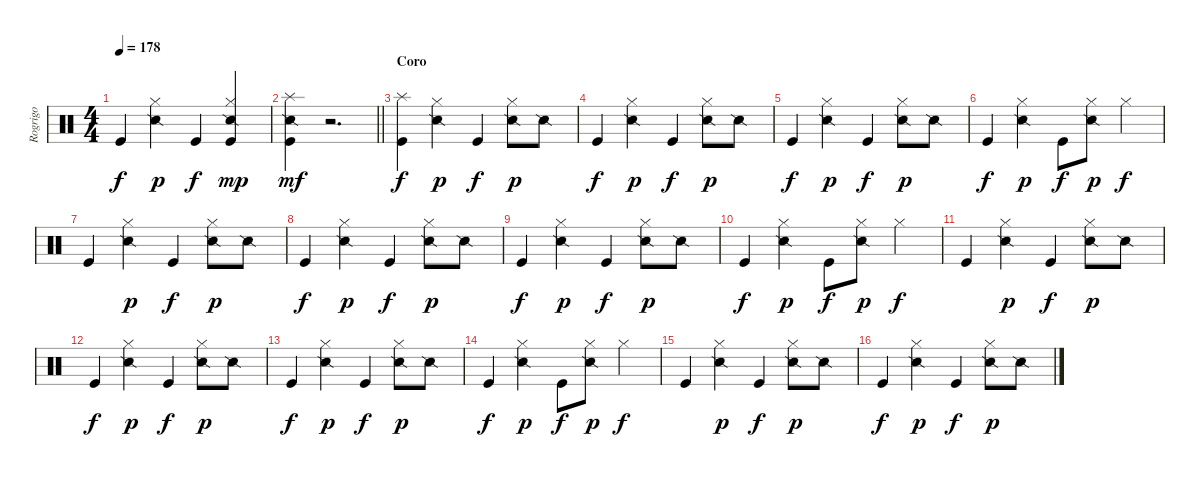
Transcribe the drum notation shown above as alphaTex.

\track ("Rogrigo" "Rogrigo") {instrument percussion}
\staff {score}
\articulation defaults
\ts (4 4)
\tempo 178
\clef neutral
\ks c "Kick (hit)".4{dy f}
("Hi-Hat (closed)" "Snare (side stick) 2").4{dy p} "Kick (hit)".4{dy f} ("Hi-Hat (closed)" "Snare (side stick) 2" "Kick (hit)").4{dy mp} |
\barLineRight lightlight
("Splash (hit)" "Snare (side stick) 2" "Kick (hit)").4{dy mf} r.2{d} |
\section ("" "Coro")
("Splash (hit)" "Kick (hit)").4{dy f} ("Hi-Hat (closed)" "Snare (side stick) 2").4{dy p} "Kick (hit)".4{dy f} ("Hi-Hat (closed)" "Snare (side stick) 2").8{dy p} "Snare (side stick) 2".8 |
"Kick (hit)".4{dy f} ("Hi-Hat (closed)" "Snare (side stick) 2").4{dy p} "Kick (hit)".4{dy f} ("Hi-Hat (closed)" "Snare (side stick) 2").8{dy p} "Snare (side stick) 2".8 |
"Kick (hit)".4{dy f} ("Hi-Hat (closed)" "Snare (side stick) 2").4{dy p} "Kick (hit)".4{dy f} ("Hi-Hat (closed)" "Snare (side stick) 2").8{dy p} "Snare (side stick) 2".8 |
"Kick (hit)".4{dy f} ("Hi-Hat (closed)" "Snare (side stick) 2").4{dy p} "Kick (hit)".8{dy f} ("Hi-Hat (closed)" "Snare (side stick) 2").8{dy p} "Hi-Hat (closed)".4{dy f} |
"Kick (hit)".4 ("Hi-Hat (closed)" "Snare (side stick) 2").4{dy p} "Kick (hit)".4{dy f} ("Hi-Hat (closed)" "Snare (side stick) 2").8{dy p} "Snare (side stick) 2".8 |
"Kick (hit)".4{dy f} ("Hi-Hat (closed)" "Snare (side stick) 2").4{dy p} "Kick (hit)".4{dy f} ("Hi-Hat (closed)" "Snare (side stick) 2").8{dy p} "Snare (side stick) 2".8 |
"Kick (hit)".4{dy f} ("Hi-Hat (closed)" "Snare (side stick) 2").4{dy p} "Kick (hit)".4{dy f} ("Hi-Hat (closed)" "Snare (side stick) 2").8{dy p} "Snare (side stick) 2".8 |
"Kick (hit)".4{dy f} ("Hi-Hat (closed)" "Snare (side stick) 2").4{dy p} "Kick (hit)".8{dy f} ("Hi-Hat (closed)" "Snare (side stick) 2").8{dy p} "Hi-Hat (closed)".4{dy f} |
"Kick (hit)".4 ("Hi-Hat (closed)" "Snare (side stick) 2").4{dy p} "Kick (hit)".4{dy f} ("Hi-Hat (closed)" "Snare (side stick) 2").8{dy p} "Snare (side stick) 2".8 |
"Kick (hit)".4{dy f} ("Hi-Hat (closed)" "Snare (side stick) 2").4{dy p} "Kick (hit)".4{dy f} ("Hi-Hat (closed)" "Snare (side stick) 2").8{dy p} "Snare (side stick) 2".8 |
"Kick (hit)".4{dy f} ("Hi-Hat (closed)" "Snare (side stick) 2").4{dy p} "Kick (hit)".4{dy f} ("Hi-Hat (closed)" "Snare (side stick) 2").8{dy p} "Snare (side stick) 2".8 |
"Kick (hit)".4{dy f} ("Hi-Hat (closed)" "Snare (side stick) 2").4{dy p} "Kick (hit)".8{dy f} ("Hi-Hat (closed)" "Snare (side stick) 2").8{dy p} "Hi-Hat (closed)".4{dy f} |
"Kick (hit)".4 ("Hi-Hat (closed)" "Snare (side stick) 2").4{dy p} "Kick (hit)".4{dy f} ("Hi-Hat (closed)" "Snare (side stick) 2").8{dy p} "Snare (side stick) 2".8 |
"Kick (hit)".4{dy f} ("Hi-Hat (closed)" "Snare (side stick) 2").4{dy p} "Kick (hit)".4{dy f} ("Hi-Hat (closed)" "Snare (side stick) 2").8{dy p} "Snare (side stick) 2".8
